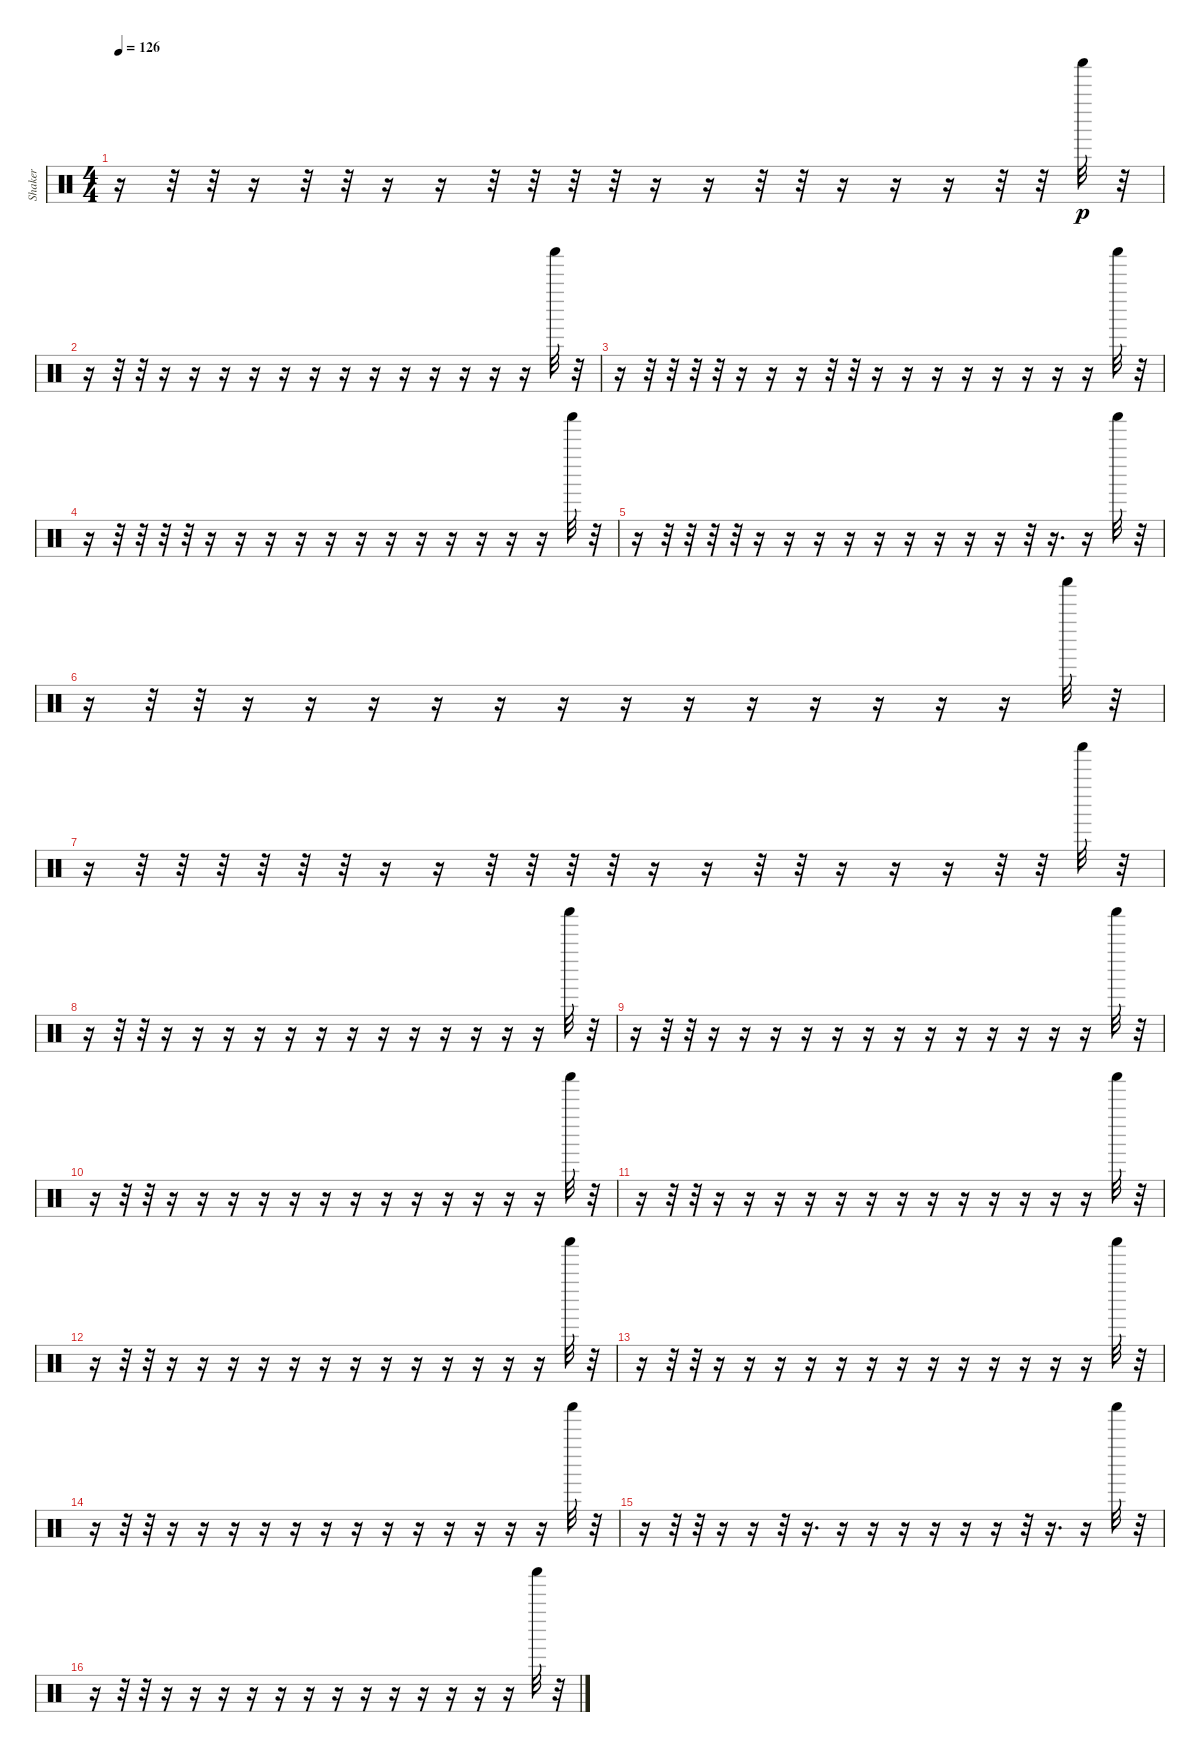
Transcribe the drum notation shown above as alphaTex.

\track ("Shaker" "Shaker") {instrument percussion}
\staff {score}
\articulation defaults
\ts (4 4)
\tempo 126
\clef neutral
\ks c
r.16{dy p} r.32 r.32 r.16 r.32 r.32 r.16 r.16 r.32 r.32 r.32 r.32 r.16 r.16 r.32 r.32 r.16 r.16 r.16 r.32 r.32 "Shaker (hit)".32 r.32 |
r.16 r.32 r.32 r.16 r.16 r.16 r.16 r.16 r.16 r.16 r.16 r.16 r.16 r.16 r.16 r.16 "Shaker (hit)".32 r.32 |
r.16 r.32 r.32 r.32 r.32 r.16 r.16 r.16 r.32 r.32 r.16 r.16 r.16 r.16 r.16 r.16 r.16 r.16 "Shaker (hit)".32 r.32 |
r.16 r.32 r.32 r.32 r.32 r.16 r.16 r.16 r.16 r.16 r.16 r.16 r.16 r.16 r.16 r.16 r.16 "Shaker (hit)".32 r.32 |
r.16 r.32 r.32 r.32 r.32 r.16 r.16 r.16 r.16 r.16 r.16 r.16 r.16 r.16 r.32 r.16{d} r.16 "Shaker (hit)".32 r.32 |
r.16 r.32 r.32 r.16 r.16 r.16 r.16 r.16 r.16 r.16 r.16 r.16 r.16 r.16 r.16 r.16 "Shaker (hit)".32 r.32 |
r.16 r.32 r.32 r.32 r.32 r.32 r.32 r.16 r.16 r.32 r.32 r.32 r.32 r.16 r.16 r.32 r.32 r.16 r.16 r.16 r.32 r.32 "Shaker (hit)".32 r.32 |
r.16 r.32 r.32 r.16 r.16 r.16 r.16 r.16 r.16 r.16 r.16 r.16 r.16 r.16 r.16 r.16 "Shaker (hit)".32 r.32 |
r.16 r.32 r.32 r.16 r.16 r.16 r.16 r.16 r.16 r.16 r.16 r.16 r.16 r.16 r.16 r.16 "Shaker (hit)".32 r.32 |
r.16 r.32 r.32 r.16 r.16 r.16 r.16 r.16 r.16 r.16 r.16 r.16 r.16 r.16 r.16 r.16 "Shaker (hit)".32 r.32 |
r.16 r.32 r.32 r.16 r.16 r.16 r.16 r.16 r.16 r.16 r.16 r.16 r.16 r.16 r.16 r.16 "Shaker (hit)".32 r.32 |
r.16 r.32 r.32 r.16 r.16 r.16 r.16 r.16 r.16 r.16 r.16 r.16 r.16 r.16 r.16 r.16 "Shaker (hit)".32 r.32 |
r.16 r.32 r.32 r.16 r.16 r.16 r.16 r.16 r.16 r.16 r.16 r.16 r.16 r.16 r.16 r.16 "Shaker (hit)".32 r.32 |
r.16 r.32 r.32 r.16 r.16 r.16 r.16 r.16 r.16 r.16 r.16 r.16 r.16 r.16 r.16 r.16 "Shaker (hit)".32 r.32 |
r.16 r.32 r.32 r.16 r.16 r.32 r.16{d} r.16 r.16 r.16 r.16 r.16 r.16 r.32 r.16{d} r.16 "Shaker (hit)".32 r.32 |
r.16 r.32 r.32 r.16 r.16 r.16 r.16 r.16 r.16 r.16 r.16 r.16 r.16 r.16 r.16 r.16 "Shaker (hit)".32 r.32
